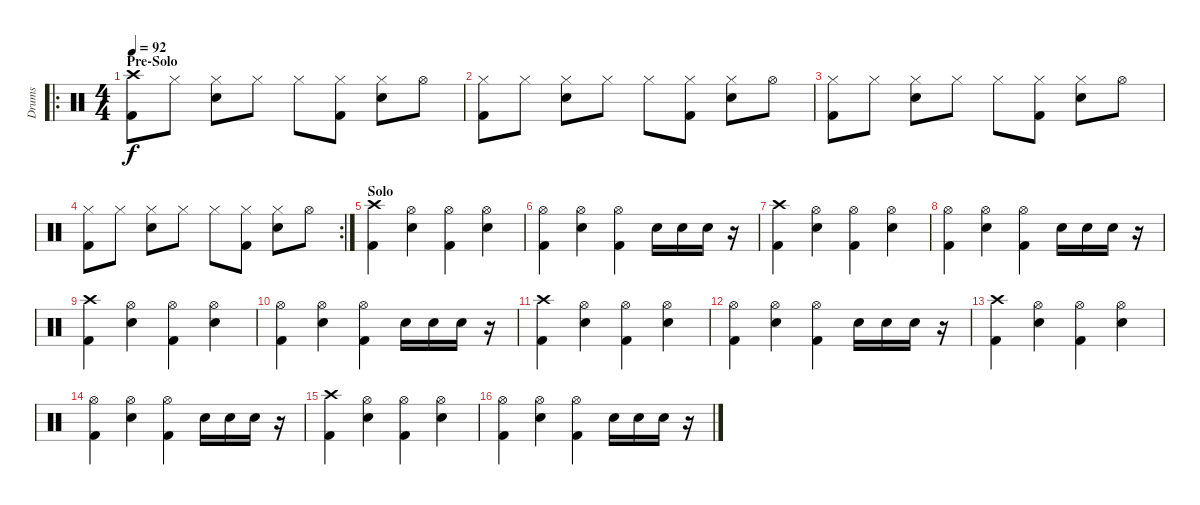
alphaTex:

\track ("Drums" "Drums") {instrument percussion}
\staff {score}
\articulation defaults
\ro
\ts (4 4)
\section ("" "Pre-Solo")
\tempo 92
\clef neutral
\ks c
("Crash high (hit)" "Kick (hit) 2").8{dy f} "Hi-Hat (closed)".8 ("Hi-Hat (closed)" "Electric Snare (hit)").8 "Hi-Hat (closed)".8 "Hi-Hat (closed)".8 ("Hi-Hat (closed)" "Kick (hit) 2").8 ("Hi-Hat (closed)" "Electric Snare (hit)").8 "Hi-Hat (open)".8 |
("Hi-Hat (closed)" "Kick (hit) 2").8 "Hi-Hat (closed)".8 ("Hi-Hat (closed)" "Electric Snare (hit)").8 "Hi-Hat (closed)".8 "Hi-Hat (closed)".8 ("Hi-Hat (closed)" "Kick (hit) 2").8 ("Hi-Hat (closed)" "Electric Snare (hit)").8 "Hi-Hat (open)".8 |
("Hi-Hat (closed)" "Kick (hit) 2").8 "Hi-Hat (closed)".8 ("Hi-Hat (closed)" "Electric Snare (hit)").8 "Hi-Hat (closed)".8 "Hi-Hat (closed)".8 ("Hi-Hat (closed)" "Kick (hit) 2").8 ("Hi-Hat (closed)" "Electric Snare (hit)").8 "Hi-Hat (open)".8 |
\rc 2
("Hi-Hat (closed)" "Kick (hit) 2").8 "Hi-Hat (closed)".8 ("Hi-Hat (closed)" "Electric Snare (hit)").8 "Hi-Hat (closed)".8 "Hi-Hat (closed)".8 ("Hi-Hat (closed)" "Kick (hit) 2").8 ("Hi-Hat (closed)" "Electric Snare (hit)").8 "Hi-Hat (open)".8 |
\section ("" "Solo")
("Crash high (hit)" "Kick (hit) 2").4 ("Hi-Hat (open)" "Electric Snare (hit)").4 ("Hi-Hat (open)" "Kick (hit) 2").4 ("Hi-Hat (open)" "Electric Snare (hit)").4 |
("Hi-Hat (open)" "Kick (hit) 2").4 ("Hi-Hat (open)" "Electric Snare (hit)").4 ("Hi-Hat (open)" "Kick (hit) 2").4 "Electric Snare (hit)".16 "Electric Snare (hit)".16 "Electric Snare (hit)".16 r.16 |
("Crash high (hit)" "Kick (hit) 2").4 ("Hi-Hat (open)" "Electric Snare (hit)").4 ("Hi-Hat (open)" "Kick (hit) 2").4 ("Hi-Hat (open)" "Electric Snare (hit)").4 |
("Hi-Hat (open)" "Kick (hit) 2").4 ("Hi-Hat (open)" "Electric Snare (hit)").4 ("Hi-Hat (open)" "Kick (hit) 2").4 "Electric Snare (hit)".16 "Electric Snare (hit)".16 "Electric Snare (hit)".16 r.16 |
("Crash high (hit)" "Kick (hit) 2").4 ("Hi-Hat (open)" "Electric Snare (hit)").4 ("Hi-Hat (open)" "Kick (hit) 2").4 ("Hi-Hat (open)" "Electric Snare (hit)").4 |
("Hi-Hat (open)" "Kick (hit) 2").4 ("Hi-Hat (open)" "Electric Snare (hit)").4 ("Hi-Hat (open)" "Kick (hit) 2").4 "Electric Snare (hit)".16 "Electric Snare (hit)".16 "Electric Snare (hit)".16 r.16 |
("Crash high (hit)" "Kick (hit) 2").4 ("Hi-Hat (open)" "Electric Snare (hit)").4 ("Hi-Hat (open)" "Kick (hit) 2").4 ("Hi-Hat (open)" "Electric Snare (hit)").4 |
("Hi-Hat (open)" "Kick (hit) 2").4 ("Hi-Hat (open)" "Electric Snare (hit)").4 ("Hi-Hat (open)" "Kick (hit) 2").4 "Electric Snare (hit)".16 "Electric Snare (hit)".16 "Electric Snare (hit)".16 r.16 |
("Crash high (hit)" "Kick (hit) 2").4 ("Hi-Hat (open)" "Electric Snare (hit)").4 ("Hi-Hat (open)" "Kick (hit) 2").4 ("Hi-Hat (open)" "Electric Snare (hit)").4 |
("Hi-Hat (open)" "Kick (hit) 2").4 ("Hi-Hat (open)" "Electric Snare (hit)").4 ("Hi-Hat (open)" "Kick (hit) 2").4 "Electric Snare (hit)".16 "Electric Snare (hit)".16 "Electric Snare (hit)".16 r.16 |
("Crash high (hit)" "Kick (hit) 2").4 ("Hi-Hat (open)" "Electric Snare (hit)").4 ("Hi-Hat (open)" "Kick (hit) 2").4 ("Hi-Hat (open)" "Electric Snare (hit)").4 |
("Hi-Hat (open)" "Kick (hit) 2").4 ("Hi-Hat (open)" "Electric Snare (hit)").4 ("Hi-Hat (open)" "Kick (hit) 2").4 "Electric Snare (hit)".16 "Electric Snare (hit)".16 "Electric Snare (hit)".16 r.16
